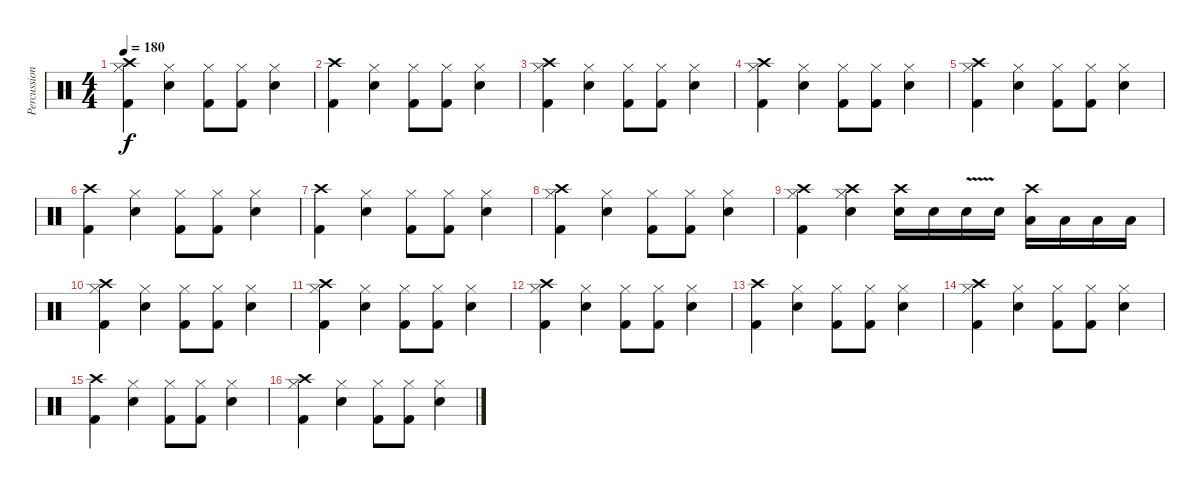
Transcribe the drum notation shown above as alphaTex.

\track ("Percussion" "Percussion") {instrument percussion}
\staff {score}
\articulation defaults
\ts (4 4)
\tempo 180
\clef neutral
\ks c
("Crash high (hit)" "Hi-Hat (closed)" "Kick (hit) 2").4{dy f} ("Hi-Hat (closed)" "Snare (hit) 2").4 ("Hi-Hat (closed)" "Kick (hit) 2").8 ("Hi-Hat (closed)" "Kick (hit) 2").8 ("Hi-Hat (closed)" "Snare (hit) 2").4 |
("Crash high (hit)" "Kick (hit) 2").4 ("Hi-Hat (closed)" "Snare (hit) 2").4 ("Hi-Hat (closed)" "Kick (hit) 2").8 ("Hi-Hat (closed)" "Kick (hit) 2").8 ("Hi-Hat (closed)" "Snare (hit) 2").4 |
("Crash high (hit)" "Hi-Hat (closed)" "Kick (hit) 2").4 ("Hi-Hat (closed)" "Snare (hit) 2").4 ("Hi-Hat (closed)" "Kick (hit) 2").8 ("Hi-Hat (closed)" "Kick (hit) 2").8 ("Hi-Hat (closed)" "Snare (hit) 2").4 |
("Crash high (hit)" "Hi-Hat (closed)" "Kick (hit) 2").4 ("Hi-Hat (closed)" "Snare (hit) 2").4 ("Hi-Hat (closed)" "Kick (hit) 2").8 ("Hi-Hat (closed)" "Kick (hit) 2").8 ("Hi-Hat (closed)" "Snare (hit) 2").4 |
("Crash high (hit)" "Hi-Hat (closed)" "Kick (hit) 2").4 ("Hi-Hat (closed)" "Snare (hit) 2").4 ("Hi-Hat (closed)" "Kick (hit) 2").8 ("Hi-Hat (closed)" "Kick (hit) 2").8 ("Hi-Hat (closed)" "Snare (hit) 2").4 |
("Crash high (hit)" "Kick (hit) 2").4 ("Hi-Hat (closed)" "Snare (hit) 2").4 ("Hi-Hat (closed)" "Kick (hit) 2").8 ("Hi-Hat (closed)" "Kick (hit) 2").8 ("Hi-Hat (closed)" "Snare (hit) 2").4 |
("Crash high (hit)" "Kick (hit) 2").4 ("Hi-Hat (closed)" "Snare (hit) 2").4 ("Hi-Hat (closed)" "Kick (hit) 2").8 ("Hi-Hat (closed)" "Kick (hit) 2").8 ("Hi-Hat (closed)" "Snare (hit) 2").4 |
("Crash high (hit)" "Hi-Hat (closed)" "Kick (hit) 2").4 ("Hi-Hat (closed)" "Snare (hit) 2").4 ("Hi-Hat (closed)" "Kick (hit) 2").8 ("Hi-Hat (closed)" "Kick (hit) 2").8 ("Hi-Hat (closed)" "Snare (hit) 2").4 |
("Crash high (hit)" "Hi-Hat (closed)" "Kick (hit) 2").4 ("Crash high (hit)" "Hi-Hat (closed)" "Snare (hit) 2").4 ("Crash high (hit)" "Snare (hit) 2").16 "Snare (hit) 2".16 "Snare (hit) 2"{v}.16 "Snare (hit) 2".16 ("Crash high (hit)" "Low Floor Tom (hit)").16 "Low Floor Tom (hit)".16 "Low Tom (hit)".16 "Low Tom (hit)".16 |
("Crash high (hit)" "Hi-Hat (closed)" "Kick (hit) 2").4 ("Hi-Hat (closed)" "Snare (hit) 2").4 ("Hi-Hat (closed)" "Kick (hit) 2").8 ("Hi-Hat (closed)" "Kick (hit) 2").8 ("Hi-Hat (closed)" "Snare (hit) 2").4 |
("Crash high (hit)" "Hi-Hat (closed)" "Kick (hit) 2").4 ("Hi-Hat (closed)" "Snare (hit) 2").4 ("Hi-Hat (closed)" "Kick (hit) 2").8 ("Hi-Hat (closed)" "Kick (hit) 2").8 ("Hi-Hat (closed)" "Snare (hit) 2").4 |
("Crash high (hit)" "Hi-Hat (closed)" "Kick (hit) 2").4 ("Hi-Hat (closed)" "Snare (hit) 2").4 ("Hi-Hat (closed)" "Kick (hit) 2").8 ("Hi-Hat (closed)" "Kick (hit) 2").8 ("Hi-Hat (closed)" "Snare (hit) 2").4 |
("Crash high (hit)" "Kick (hit) 2").4 ("Hi-Hat (closed)" "Snare (hit) 2").4 ("Hi-Hat (closed)" "Kick (hit) 2").8 ("Hi-Hat (closed)" "Kick (hit) 2").8 ("Hi-Hat (closed)" "Snare (hit) 2").4 |
("Crash high (hit)" "Hi-Hat (closed)" "Kick (hit) 2").4 ("Hi-Hat (closed)" "Snare (hit) 2").4 ("Hi-Hat (closed)" "Kick (hit) 2").8 ("Hi-Hat (closed)" "Kick (hit) 2").8 ("Hi-Hat (closed)" "Snare (hit) 2").4 |
("Crash high (hit)" "Kick (hit) 2").4 ("Hi-Hat (closed)" "Snare (hit) 2").4 ("Hi-Hat (closed)" "Kick (hit) 2").8 ("Hi-Hat (closed)" "Kick (hit) 2").8 ("Hi-Hat (closed)" "Snare (hit) 2").4 |
("Crash high (hit)" "Hi-Hat (closed)" "Kick (hit) 2").4 ("Hi-Hat (closed)" "Snare (hit) 2").4 ("Hi-Hat (closed)" "Kick (hit) 2").8 ("Hi-Hat (closed)" "Kick (hit) 2").8 ("Hi-Hat (closed)" "Snare (hit) 2").4
